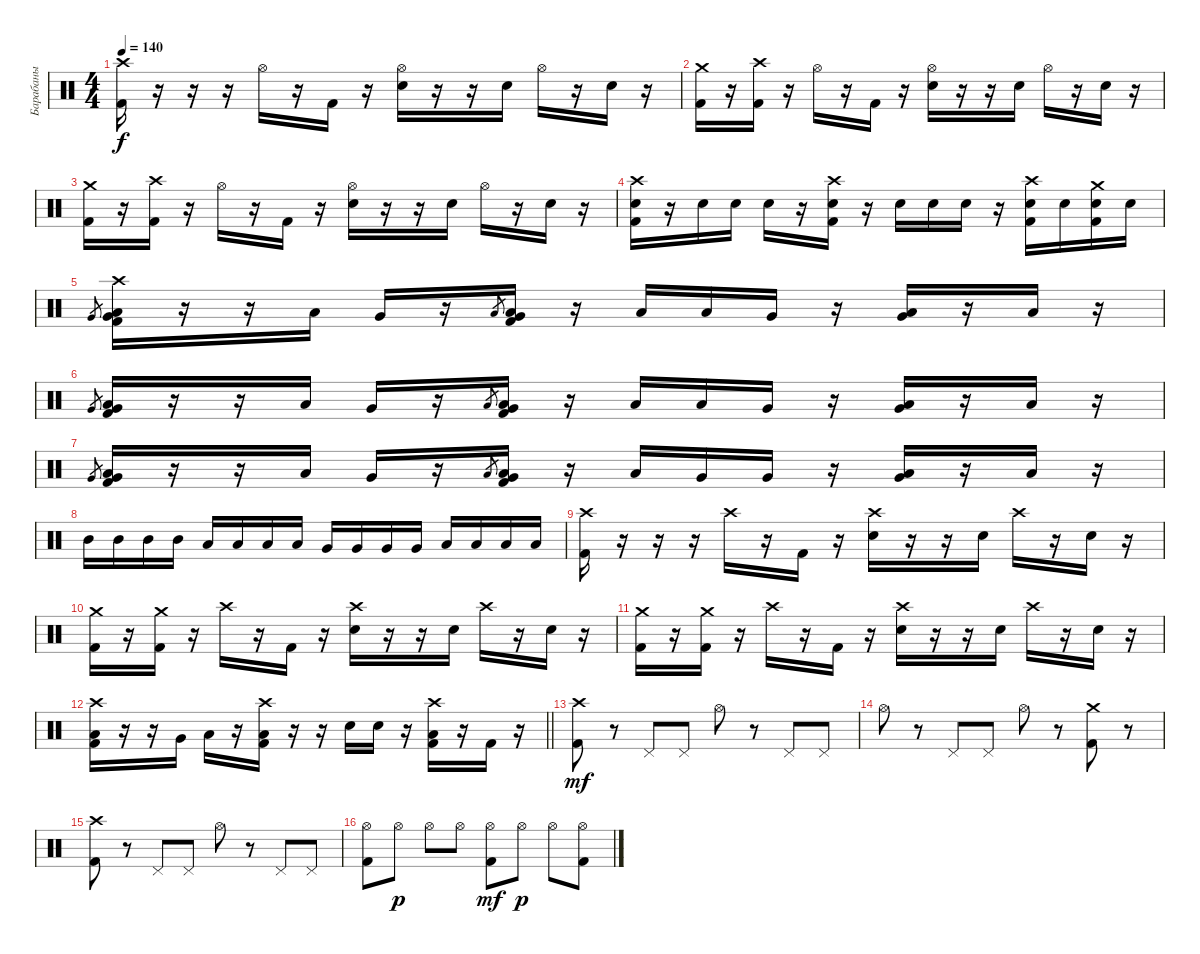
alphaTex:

\track ("Барабаны" "Барабаны") {instrument percussion}
\staff {score}
\articulation defaults
\ts (4 4)
\tempo 140
\clef neutral
\ks c
("Crash high (hit)" "Kick (hit) 2").16{dy f} r.16 r.16 r.16 "Hi-Hat (open)".16 r.16 "Kick (hit) 2".16 r.16 ("Hi-Hat (open)" "Electric Snare (hit)").16 r.16 r.16 "Electric Snare (hit)".16 "Hi-Hat (open)".16 r.16 "Electric Snare (hit)".16 r.16 |
("Crash medium (hit)" "Kick (hit) 2").16 r.16 ("Crash high (hit)" "Kick (hit) 2").16 r.16 "Hi-Hat (open)".16 r.16 "Kick (hit) 2".16 r.16 ("Hi-Hat (open)" "Electric Snare (hit)").16 r.16 r.16 "Electric Snare (hit)".16 "Hi-Hat (open)".16 r.16 "Electric Snare (hit)".16 r.16 |
("Crash medium (hit)" "Kick (hit) 2").16 r.16 ("Crash high (hit)" "Kick (hit) 2").16 r.16 "Hi-Hat (open)".16 r.16 "Kick (hit) 2".16 r.16 ("Hi-Hat (open)" "Electric Snare (hit)").16 r.16 r.16 "Electric Snare (hit)".16 "Hi-Hat (open)".16 r.16 "Electric Snare (hit)".16 r.16 |
("Crash high (hit)" "Electric Snare (hit)" "Kick (hit) 2").16 r.16 "Electric Snare (hit)".16 "Electric Snare (hit)".16 "Electric Snare (hit)".16 r.16 ("Crash high (hit)" "Electric Snare (hit)" "Kick (hit) 2").16 r.16 "Electric Snare (hit)".16 "Electric Snare (hit)".16 "Electric Snare (hit)".16 r.16 ("Crash high (hit)" "Electric Snare (hit)" "Kick (hit) 2").16 "Electric Snare (hit)".16 ("Crash medium (hit)" "Electric Snare (hit)" "Kick (hit) 2").16 "Electric Snare (hit)".16 |
"Very Low Tom (hit)".8{gr} ("Crash high (hit)" "Low Floor Tom (hit)" "Very Low Tom (hit)" "Kick (hit) 2").16 r.16 r.16 "Low Floor Tom (hit)".16 "Very Low Tom (hit)".16 r.16 "Low Floor Tom (hit)".8{gr} ("Very Low Tom (hit)" "Low Floor Tom (hit)" "Kick (hit) 2").16 r.16 "Low Tom (hit)".16 "Low Floor Tom (hit)".16 "Very Low Tom (hit)".16 r.16 ("Very Low Tom (hit)" "Low Floor Tom (hit)").16 r.16 "Low Floor Tom (hit)".16 r.16 |
"Very Low Tom (hit)".8{gr} ("Low Floor Tom (hit)" "Very Low Tom (hit)" "Kick (hit) 2").16 r.16 r.16 "Low Floor Tom (hit)".16 "Very Low Tom (hit)".16 r.16 "Low Floor Tom (hit)".8{gr} ("Very Low Tom (hit)" "Low Floor Tom (hit)" "Kick (hit) 2").16 r.16 "Low Floor Tom (hit)".16 "Low Tom (hit)".16 "Very Low Tom (hit)".16 r.16 ("Very Low Tom (hit)" "Low Floor Tom (hit)").16 r.16 "Low Floor Tom (hit)".16 r.16 |
"Very Low Tom (hit)".8{gr} ("Low Floor Tom (hit)" "Very Low Tom (hit)" "Kick (hit) 2").16 r.16 r.16 "Low Floor Tom (hit)".16 "Very Low Tom (hit)".16 r.16 "Low Floor Tom (hit)".8{gr} ("Very Low Tom (hit)" "Low Floor Tom (hit)" "Kick (hit) 2").16 r.16 "Low Floor Tom (hit)".16 "Very Low Tom (hit)".16 "Very Low Tom (hit)".16 r.16 ("Very Low Tom (hit)" "Low Floor Tom (hit)").16 r.16 "Low Floor Tom (hit)".16 r.16 |
"Mid Tom (hit)".16 "Mid Tom (hit)".16 "Mid Tom (hit)".16 "Mid Tom (hit)".16 "Low Tom (hit)".16 "Low Tom (hit)".16 "Low Tom (hit)".16 "Low Tom (hit)".16 "Very Low Tom (hit)".16 "Very Low Tom (hit)".16 "Very Low Tom (hit)".16 "Very Low Tom (hit)".16 "Low Floor Tom (hit)".16 "Low Floor Tom (hit)".16 "Low Floor Tom (hit)".16 "Low Floor Tom (hit)".16 |
("Crash high (hit)" "Kick (hit) 2").16 r.16 r.16 r.16 "Crash high (hit)".16 r.16 "Kick (hit) 2".16 r.16 ("Crash high (hit)" "Electric Snare (hit)").16 r.16 r.16 "Electric Snare (hit)".16 "Crash high (hit)".16 r.16 "Electric Snare (hit)".16 r.16 |
("Crash medium (hit)" "Kick (hit) 2").16 r.16 ("Crash medium (hit)" "Kick (hit) 2").16 r.16 "Crash high (hit)".16 r.16 "Kick (hit) 2".16 r.16 ("Crash high (hit)" "Electric Snare (hit)").16 r.16 r.16 "Electric Snare (hit)".16 "Crash high (hit)".16 r.16 "Electric Snare (hit)".16 r.16 |
("Crash medium (hit)" "Kick (hit) 2").16 r.16 ("Crash medium (hit)" "Kick (hit) 2").16 r.16 "Crash high (hit)".16 r.16 "Kick (hit) 2".16 r.16 ("Crash high (hit)" "Electric Snare (hit)").16 r.16 r.16 "Electric Snare (hit)".16 "Crash high (hit)".16 r.16 "Electric Snare (hit)".16 r.16 |
\barLineRight lightlight
("Crash high (hit)" "Low Floor Tom (hit)" "Kick (hit) 2").16 r.16 r.16 "Very Low Tom (hit)".16 "Low Floor Tom (hit)".16 r.16 ("Crash high (hit)" "Low Floor Tom (hit)" "Kick (hit) 2").16 r.16 r.16 "Electric Snare (hit)".16 "Electric Snare (hit)".16 r.16 ("Crash high (hit)" "Low Floor Tom (hit)" "Kick (hit) 2").16 r.16 "Kick (hit) 2".16 r.16 |
\section ("" " ")
("Crash high (hit)" "Kick (hit) 2").8{dy mf} r.8 "Pedal Hi-Hat (hit)".8 "Pedal Hi-Hat (hit)".8 "Hi-Hat (open)".8 r.8 "Pedal Hi-Hat (hit)".8 "Pedal Hi-Hat (hit)".8 |
"Hi-Hat (open)".8 r.8 "Pedal Hi-Hat (hit)".8 "Pedal Hi-Hat (hit)".8 "Hi-Hat (open)".8 r.8 ("Crash medium (hit)" "Kick (hit) 2").8 r.8 |
("Crash high (hit)" "Kick (hit) 2").8 r.8 "Pedal Hi-Hat (hit)".8 "Pedal Hi-Hat (hit)".8 "Hi-Hat (open)".8 r.8 "Pedal Hi-Hat (hit)".8 "Pedal Hi-Hat (hit)".8 |
("Hi-Hat (open)" "Kick (hit) 2").8 "Hi-Hat (open)".8{dy p} "Hi-Hat (open)".8 "Hi-Hat (open)".8 ("Hi-Hat (open)" "Kick (hit) 2").8{dy mf} "Hi-Hat (open)".8{dy p} "Hi-Hat (open)".8 ("Hi-Hat (open)" "Kick (hit) 2").8
